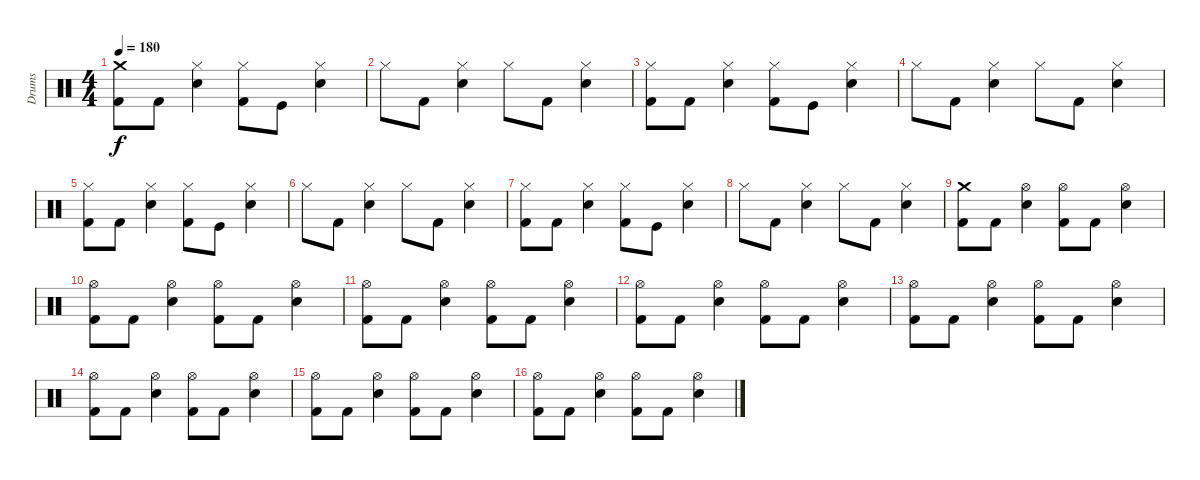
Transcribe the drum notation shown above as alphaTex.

\track ("Drums" "Drums") {instrument percussion}
\staff {score}
\articulation defaults
\ts (4 4)
\tempo 180
\clef neutral
\ks c
("Crash medium (hit)" "Kick (hit) 2").8{dy f} "Kick (hit) 2".8 ("Hi-Hat (closed)" "Electric Snare (hit)").4 ("Hi-Hat (closed)" "Kick (hit) 2").8 "Kick (hit)".8 ("Hi-Hat (closed)" "Electric Snare (hit)").4 |
"Hi-Hat (closed)".8 "Kick (hit) 2".8 ("Hi-Hat (closed)" "Electric Snare (hit)").4 "Hi-Hat (closed)".8 "Kick (hit) 2".8 ("Hi-Hat (closed)" "Electric Snare (hit)").4 |
("Hi-Hat (closed)" "Kick (hit) 2").8 "Kick (hit) 2".8 ("Hi-Hat (closed)" "Electric Snare (hit)").4 ("Hi-Hat (closed)" "Kick (hit) 2").8 "Kick (hit)".8 ("Hi-Hat (closed)" "Electric Snare (hit)").4 |
"Hi-Hat (closed)".8 "Kick (hit) 2".8 ("Hi-Hat (closed)" "Electric Snare (hit)").4 "Hi-Hat (closed)".8 "Kick (hit) 2".8 ("Hi-Hat (closed)" "Electric Snare (hit)").4 |
("Hi-Hat (closed)" "Kick (hit) 2").8 "Kick (hit) 2".8 ("Hi-Hat (closed)" "Electric Snare (hit)").4 ("Hi-Hat (closed)" "Kick (hit) 2").8 "Kick (hit)".8 ("Hi-Hat (closed)" "Electric Snare (hit)").4 |
"Hi-Hat (closed)".8 "Kick (hit) 2".8 ("Hi-Hat (closed)" "Electric Snare (hit)").4 "Hi-Hat (closed)".8 "Kick (hit) 2".8 ("Hi-Hat (closed)" "Electric Snare (hit)").4 |
("Hi-Hat (closed)" "Kick (hit) 2").8 "Kick (hit) 2".8 ("Hi-Hat (closed)" "Electric Snare (hit)").4 ("Hi-Hat (closed)" "Kick (hit) 2").8 "Kick (hit)".8 ("Hi-Hat (closed)" "Electric Snare (hit)").4 |
"Hi-Hat (closed)".8 "Kick (hit) 2".8 ("Hi-Hat (closed)" "Electric Snare (hit)").4 "Hi-Hat (closed)".8 "Kick (hit) 2".8 ("Hi-Hat (closed)" "Electric Snare (hit)").4 |
("Crash medium (hit)" "Kick (hit) 2").8 "Kick (hit) 2".8 ("Hi-Hat (open)" "Electric Snare (hit)").4 ("Hi-Hat (open)" "Kick (hit) 2").8 "Kick (hit) 2".8 ("Hi-Hat (open)" "Electric Snare (hit)").4 |
("Hi-Hat (open)" "Kick (hit) 2").8 "Kick (hit) 2".8 ("Hi-Hat (open)" "Electric Snare (hit)").4 ("Hi-Hat (open)" "Kick (hit) 2").8 "Kick (hit) 2".8 ("Hi-Hat (open)" "Electric Snare (hit)").4 |
("Hi-Hat (open)" "Kick (hit) 2").8 "Kick (hit) 2".8 ("Hi-Hat (open)" "Electric Snare (hit)").4 ("Hi-Hat (open)" "Kick (hit) 2").8 "Kick (hit) 2".8 ("Hi-Hat (open)" "Electric Snare (hit)").4 |
("Hi-Hat (open)" "Kick (hit) 2").8 "Kick (hit) 2".8 ("Hi-Hat (open)" "Electric Snare (hit)").4 ("Hi-Hat (open)" "Kick (hit) 2").8 "Kick (hit) 2".8 ("Hi-Hat (open)" "Electric Snare (hit)").4 |
("Hi-Hat (open)" "Kick (hit) 2").8 "Kick (hit) 2".8 ("Hi-Hat (open)" "Electric Snare (hit)").4 ("Hi-Hat (open)" "Kick (hit) 2").8 "Kick (hit) 2".8 ("Hi-Hat (open)" "Electric Snare (hit)").4 |
("Hi-Hat (open)" "Kick (hit) 2").8 "Kick (hit) 2".8 ("Hi-Hat (open)" "Electric Snare (hit)").4 ("Hi-Hat (open)" "Kick (hit) 2").8 "Kick (hit) 2".8 ("Hi-Hat (open)" "Electric Snare (hit)").4 |
("Hi-Hat (open)" "Kick (hit) 2").8 "Kick (hit) 2".8 ("Hi-Hat (open)" "Electric Snare (hit)").4 ("Hi-Hat (open)" "Kick (hit) 2").8 "Kick (hit) 2".8 ("Hi-Hat (open)" "Electric Snare (hit)").4 |
("Hi-Hat (open)" "Kick (hit) 2").8 "Kick (hit) 2".8 ("Hi-Hat (open)" "Electric Snare (hit)").4 ("Hi-Hat (open)" "Kick (hit) 2").8 "Kick (hit) 2".8 ("Hi-Hat (open)" "Electric Snare (hit)").4
